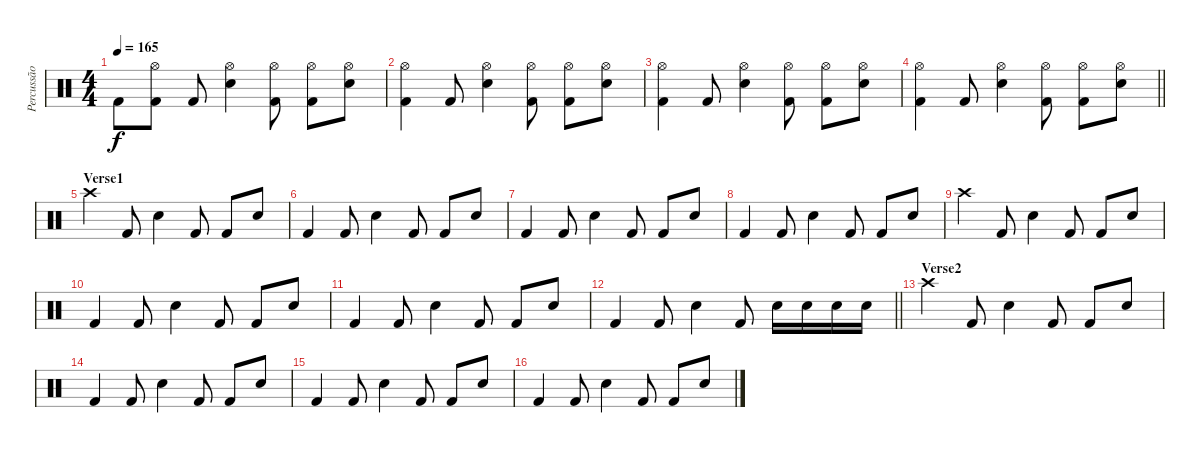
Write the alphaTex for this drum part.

\track ("Percussão" "Percussão") {instrument percussion}
\staff {score}
\articulation defaults
\ts (4 4)
\tempo 165
\clef neutral
\ks c "Kick (hit) 2".8{dy f}
("Hi-Hat (open)" "Kick (hit) 2").8 "Kick (hit) 2".8 ("Hi-Hat (open)" "Snare (hit) 2").4 ("Hi-Hat (open)" "Kick (hit) 2").8 ("Hi-Hat (open)" "Kick (hit) 2").8 ("Hi-Hat (open)" "Snare (hit) 2").8 |
("Hi-Hat (open)" "Kick (hit) 2").4 "Kick (hit) 2".8 ("Hi-Hat (open)" "Snare (hit) 2").4 ("Hi-Hat (open)" "Kick (hit) 2").8 ("Hi-Hat (open)" "Kick (hit) 2").8 ("Hi-Hat (open)" "Snare (hit) 2").8 |
("Hi-Hat (open)" "Kick (hit) 2").4 "Kick (hit) 2".8 ("Hi-Hat (open)" "Snare (hit) 2").4 ("Hi-Hat (open)" "Kick (hit) 2").8 ("Hi-Hat (open)" "Kick (hit) 2").8 ("Hi-Hat (open)" "Snare (hit) 2").8 |
\barLineRight lightlight
("Hi-Hat (open)" "Kick (hit) 2").4 "Kick (hit) 2".8 ("Hi-Hat (open)" "Snare (hit) 2").4 ("Hi-Hat (open)" "Kick (hit) 2").8 ("Hi-Hat (open)" "Kick (hit) 2").8 ("Hi-Hat (open)" "Snare (hit) 2").8 |
\section ("" "Verse1")
"Crash high (hit)".4 "Kick (hit) 2".8 "Snare (hit) 2".4 "Kick (hit) 2".8 "Kick (hit) 2".8 "Snare (hit) 2".8 |
"Kick (hit) 2".4 "Kick (hit) 2".8 "Snare (hit) 2".4 "Kick (hit) 2".8 "Kick (hit) 2".8 "Snare (hit) 2".8 |
"Kick (hit) 2".4 "Kick (hit) 2".8 "Snare (hit) 2".4 "Kick (hit) 2".8 "Kick (hit) 2".8 "Snare (hit) 2".8 |
"Kick (hit) 2".4 "Kick (hit) 2".8 "Snare (hit) 2".4 "Kick (hit) 2".8 "Kick (hit) 2".8 "Snare (hit) 2".8 |
"Crash high (hit)".4 "Kick (hit) 2".8 "Snare (hit) 2".4 "Kick (hit) 2".8 "Kick (hit) 2".8 "Snare (hit) 2".8 |
"Kick (hit) 2".4 "Kick (hit) 2".8 "Snare (hit) 2".4 "Kick (hit) 2".8 "Kick (hit) 2".8 "Snare (hit) 2".8 |
"Kick (hit) 2".4 "Kick (hit) 2".8 "Snare (hit) 2".4 "Kick (hit) 2".8 "Kick (hit) 2".8 "Snare (hit) 2".8 |
\barLineRight lightlight "Kick (hit) 2".4 "Kick (hit) 2".8 "Snare (hit) 2".4 "Kick (hit) 2".8 "Snare (hit) 2".16 "Snare (hit) 2".16 "Snare (hit) 2".16 "Snare (hit) 2".16
|
\section ("" "Verse2 ")
"Crash high (hit)".4 "Kick (hit) 2".8 "Snare (hit) 2".4 "Kick (hit) 2".8 "Kick (hit) 2".8 "Snare (hit) 2".8 |
"Kick (hit) 2".4 "Kick (hit) 2".8 "Snare (hit) 2".4 "Kick (hit) 2".8 "Kick (hit) 2".8 "Snare (hit) 2".8 |
"Kick (hit) 2".4 "Kick (hit) 2".8 "Snare (hit) 2".4 "Kick (hit) 2".8 "Kick (hit) 2".8 "Snare (hit) 2".8 |
"Kick (hit) 2".4 "Kick (hit) 2".8 "Snare (hit) 2".4 "Kick (hit) 2".8 "Kick (hit) 2".8 "Snare (hit) 2".8
